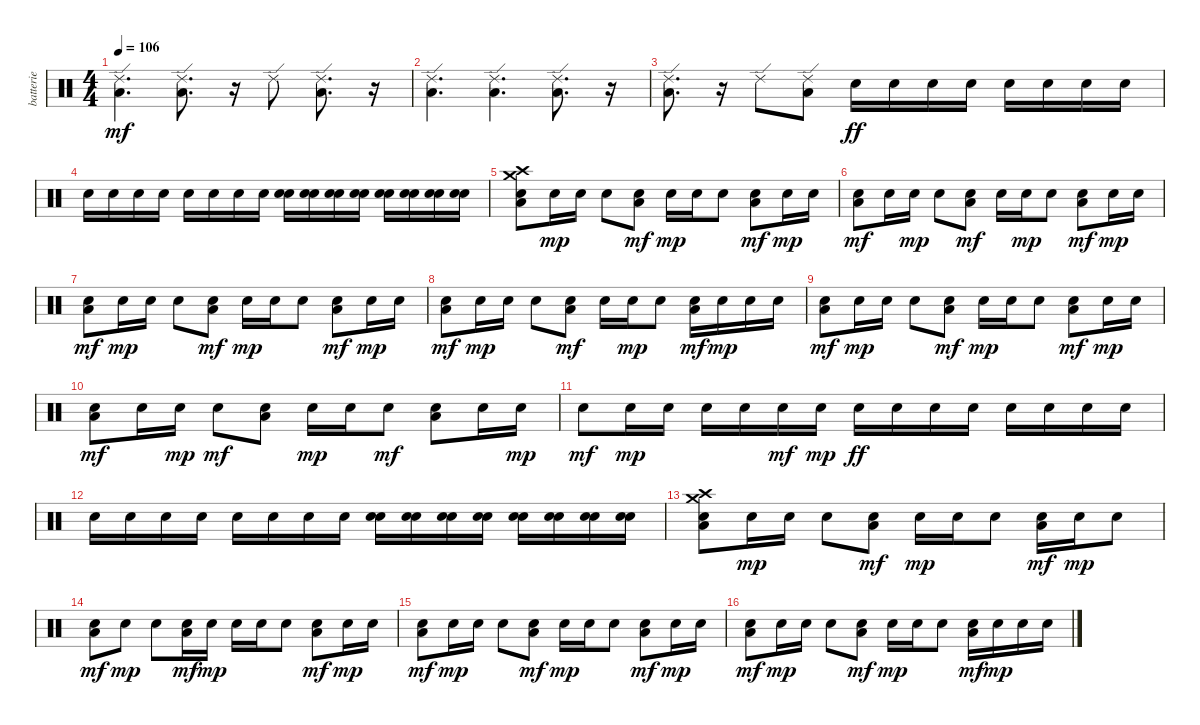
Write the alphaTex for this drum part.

\track ("batterie" "batterie") {instrument percussion}
\staff {score}
\articulation defaults
\ts (4 4)
\tempo 106
\clef neutral
\ks c
("Low Floor Tom (hit)" "Ride (edge) 2").4{d dy mf} ("Low Floor Tom (hit)" "Ride (edge) 2").8{d} r.16 "Ride (edge) 2".8 ("Low Floor Tom (hit)" "Ride (edge) 2").8{d} r.16 |
("Low Floor Tom (hit)" "Ride (edge) 2").4{d} ("Low Floor Tom (hit)" "Ride (edge) 2").4{d} ("Low Floor Tom (hit)" "Ride (edge) 2").8{d} r.16 |
("Low Floor Tom (hit)" "Ride (edge) 2").8{d} r.16 "Ride (edge) 2".8 ("Low Floor Tom (hit)" "Ride (edge) 2").8 "Electric Snare (hit)".16{dy ff volume 5} "Electric Snare (hit)".16{volume 6} "Electric Snare (hit)".16{volume 8} "Electric Snare (hit)".16{volume 9} "Electric Snare (hit)".16{volume 10} "Electric Snare (hit)".16{volume 12} "Electric Snare (hit)".16{volume 13} "Electric Snare (hit)".16{volume 14} |
"Electric Snare (hit)".16{volume 16} "Electric Snare (hit)".16 "Electric Snare (hit)".16 "Electric Snare (hit)".16 "Electric Snare (hit)".16 "Electric Snare (hit)".16 "Electric Snare (hit)".16 "Electric Snare (hit)".16 ("Electric Snare (hit)" "Electric Snare (hit)").16 ("Electric Snare (hit)" "Electric Snare (hit)").16 ("Electric Snare (hit)" "Electric Snare (hit)").16 ("Electric Snare (hit)" "Electric Snare (hit)").16 ("Electric Snare (hit)" "Electric Snare (hit)").16 ("Electric Snare (hit)" "Electric Snare (hit)").16 ("Electric Snare (hit)" "Electric Snare (hit)").16 ("Electric Snare (hit)" "Electric Snare (hit)").16 |
("Electric Snare (hit)" "Low Floor Tom (hit)" "Crash high (hit)" "Crash medium (hit)").8 "Electric Snare (hit)".16{dy mp} "Electric Snare (hit)".16 "Electric Snare (hit)".8 ("Electric Snare (hit)" "Low Floor Tom (hit)").8{dy mf} "Electric Snare (hit)".16{dy mp} "Electric Snare (hit)".16 "Electric Snare (hit)".8 ("Electric Snare (hit)" "Low Floor Tom (hit)").8{dy mf} "Electric Snare (hit)".16{dy mp} "Electric Snare (hit)".16 |
("Electric Snare (hit)" "Low Floor Tom (hit)").8{dy mf} "Electric Snare (hit)".16 "Electric Snare (hit)".16{dy mp} "Electric Snare (hit)".8 ("Electric Snare (hit)" "Low Floor Tom (hit)").8{dy mf} "Electric Snare (hit)".16 "Electric Snare (hit)".16{dy mp} "Electric Snare (hit)".8 ("Electric Snare (hit)" "Low Floor Tom (hit)").8{dy mf} "Electric Snare (hit)".16{dy mp} "Electric Snare (hit)".16 |
("Electric Snare (hit)" "Low Floor Tom (hit)").8{dy mf} "Electric Snare (hit)".16{dy mp} "Electric Snare (hit)".16 "Electric Snare (hit)".8 ("Electric Snare (hit)" "Low Floor Tom (hit)").8{dy mf} "Electric Snare (hit)".16{dy mp} "Electric Snare (hit)".16 "Electric Snare (hit)".8 ("Electric Snare (hit)" "Low Floor Tom (hit)").8{dy mf} "Electric Snare (hit)".16{dy mp} "Electric Snare (hit)".16 |
("Electric Snare (hit)" "Low Floor Tom (hit)").8{dy mf} "Electric Snare (hit)".16{dy mp} "Electric Snare (hit)".16 "Electric Snare (hit)".8 ("Electric Snare (hit)" "Low Floor Tom (hit)").8{dy mf} "Electric Snare (hit)".16 "Electric Snare (hit)".16{dy mp} "Electric Snare (hit)".8 ("Electric Snare (hit)" "Low Floor Tom (hit)").16{dy mf} "Electric Snare (hit)".16{dy mp} "Electric Snare (hit)".16 "Electric Snare (hit)".16 |
("Electric Snare (hit)" "Low Floor Tom (hit)").8{dy mf} "Electric Snare (hit)".16{dy mp} "Electric Snare (hit)".16 "Electric Snare (hit)".8 ("Electric Snare (hit)" "Low Floor Tom (hit)").8{dy mf} "Electric Snare (hit)".16{dy mp} "Electric Snare (hit)".16 "Electric Snare (hit)".8 ("Electric Snare (hit)" "Low Floor Tom (hit)").8{dy mf} "Electric Snare (hit)".16{dy mp} "Electric Snare (hit)".16 |
("Electric Snare (hit)" "Low Floor Tom (hit)").8{dy mf} "Electric Snare (hit)".16 "Electric Snare (hit)".16{dy mp} "Electric Snare (hit)".8{dy mf} ("Electric Snare (hit)" "Low Floor Tom (hit)").8 "Electric Snare (hit)".16{dy mp} "Electric Snare (hit)".16 "Electric Snare (hit)".8{dy mf} ("Electric Snare (hit)" "Low Floor Tom (hit)").8 "Electric Snare (hit)".16 "Electric Snare (hit)".16{dy mp} |
"Electric Snare (hit)".8{dy mf} "Electric Snare (hit)".16{dy mp} "Electric Snare (hit)".16 "Electric Snare (hit)".16 "Electric Snare (hit)".16 "Electric Snare (hit)".16{dy mf} "Electric Snare (hit)".16{dy mp} "Electric Snare (hit)".16{dy ff volume 5} "Electric Snare (hit)".16{volume 6} "Electric Snare (hit)".16{volume 8} "Electric Snare (hit)".16{volume 9} "Electric Snare (hit)".16{volume 10} "Electric Snare (hit)".16{volume 12} "Electric Snare (hit)".16{volume 13} "Electric Snare (hit)".16{volume 14} |
"Electric Snare (hit)".16{volume 16} "Electric Snare (hit)".16 "Electric Snare (hit)".16 "Electric Snare (hit)".16 "Electric Snare (hit)".16 "Electric Snare (hit)".16 "Electric Snare (hit)".16 "Electric Snare (hit)".16 ("Electric Snare (hit)" "Electric Snare (hit)").16 ("Electric Snare (hit)" "Electric Snare (hit)").16 ("Electric Snare (hit)" "Electric Snare (hit)").16 ("Electric Snare (hit)" "Electric Snare (hit)").16 ("Electric Snare (hit)" "Electric Snare (hit)").16 ("Electric Snare (hit)" "Electric Snare (hit)").16 ("Electric Snare (hit)" "Electric Snare (hit)").16 ("Electric Snare (hit)" "Electric Snare (hit)").16 |
("Electric Snare (hit)" "Low Floor Tom (hit)" "Crash high (hit)" "Crash medium (hit)").8 "Electric Snare (hit)".16{dy mp} "Electric Snare (hit)".16 "Electric Snare (hit)".8 ("Electric Snare (hit)" "Low Floor Tom (hit)").8{dy mf} "Electric Snare (hit)".16{dy mp} "Electric Snare (hit)".16 "Electric Snare (hit)".8 ("Electric Snare (hit)" "Low Floor Tom (hit)").16{dy mf} "Electric Snare (hit)".16{dy mp} "Electric Snare (hit)".8 |
("Electric Snare (hit)" "Low Floor Tom (hit)").8{dy mf} "Electric Snare (hit)".8{dy mp} "Electric Snare (hit)".8 ("Electric Snare (hit)" "Low Floor Tom (hit)").16{dy mf} "Electric Snare (hit)".16{dy mp} "Electric Snare (hit)".16 "Electric Snare (hit)".16 "Electric Snare (hit)".8 ("Electric Snare (hit)" "Low Floor Tom (hit)").8{dy mf} "Electric Snare (hit)".16{dy mp} "Electric Snare (hit)".16 |
("Electric Snare (hit)" "Low Floor Tom (hit)").8{dy mf} "Electric Snare (hit)".16{dy mp} "Electric Snare (hit)".16 "Electric Snare (hit)".8 ("Electric Snare (hit)" "Low Floor Tom (hit)").8{dy mf} "Electric Snare (hit)".16{dy mp} "Electric Snare (hit)".16 "Electric Snare (hit)".8 ("Electric Snare (hit)" "Low Floor Tom (hit)").8{dy mf} "Electric Snare (hit)".16{dy mp} "Electric Snare (hit)".16 |
("Electric Snare (hit)" "Low Floor Tom (hit)").8{dy mf} "Electric Snare (hit)".16{dy mp} "Electric Snare (hit)".16 "Electric Snare (hit)".8 ("Electric Snare (hit)" "Low Floor Tom (hit)").8{dy mf} "Electric Snare (hit)".16{dy mp} "Electric Snare (hit)".16 "Electric Snare (hit)".8 ("Electric Snare (hit)" "Low Floor Tom (hit)").16{dy mf} "Electric Snare (hit)".16{dy mp} "Electric Snare (hit)".16 "Electric Snare (hit)".16
